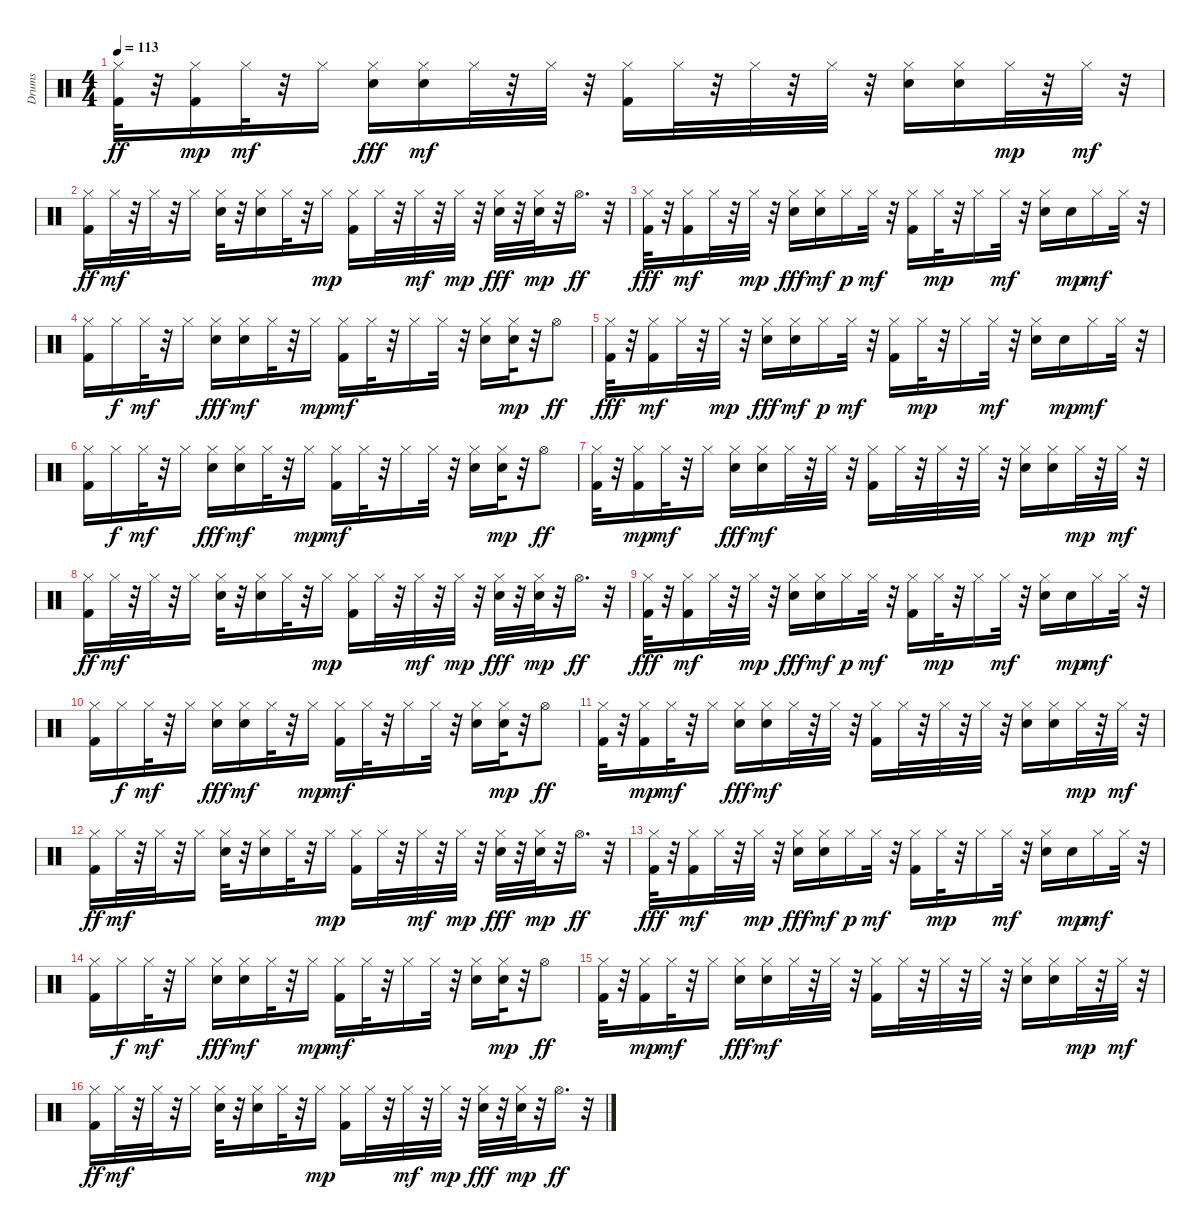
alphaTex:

\track ("Drums" "Drums") {instrument percussion}
\staff {score}
\articulation defaults
\ts (4 4)
\tempo 113
\clef neutral
\ks c
("Kick (hit) 2" "Hi-Hat (closed)").32{dy ff} r.32 ("Kick (hit) 2" "Hi-Hat (closed)").16{dy mp} "Hi-Hat (closed)".32{dy mf} r.32 "Hi-Hat (closed)".16 ("Electric Snare (hit)" "Hi-Hat (closed)").16{dy fff} ("Electric Snare (hit)" "Hi-Hat (closed)").16{dy mf} "Hi-Hat (closed)".32 r.32 "Hi-Hat (closed)".32 r.32 ("Kick (hit) 2" "Hi-Hat (closed)").16 "Hi-Hat (closed)".32 r.32 "Hi-Hat (closed)".32 r.32 "Hi-Hat (closed)".32 r.32 ("Electric Snare (hit)" "Hi-Hat (closed)").16 ("Electric Snare (hit)" "Hi-Hat (closed)").16 "Hi-Hat (closed)".32{dy mp} r.32 "Hi-Hat (closed)".32{dy mf} r.32 |
("Kick (hit) 2" "Hi-Hat (closed)").16{dy ff} "Hi-Hat (closed)".32{dy mf} r.32 "Hi-Hat (closed)".32 r.32 "Hi-Hat (closed)".16 ("Electric Snare (hit)" "Hi-Hat (closed)").32 r.32 ("Electric Snare (hit)" "Hi-Hat (closed)").16 "Hi-Hat (closed)".32 r.32 "Hi-Hat (closed)".16{dy mp} ("Kick (hit) 2" "Hi-Hat (closed)").16 "Hi-Hat (closed)".32 r.32 "Hi-Hat (closed)".32{dy mf} r.32 "Hi-Hat (closed)".32{dy mp} r.32 ("Electric Snare (hit)" "Hi-Hat (closed)").32{dy fff} r.32 ("Electric Snare (hit)" "Hi-Hat (closed)").32{dy mp} r.32 "Hi-Hat (open)".16{d dy ff} r.32 |
("Kick (hit) 2" "Hi-Hat (closed)").32{dy fff} r.32 ("Kick (hit) 2" "Hi-Hat (closed)").16{dy mf} "Hi-Hat (closed)".32 r.32 "Hi-Hat (closed)".32{dy mp} r.32 ("Electric Snare (hit)" "Hi-Hat (closed)").16{dy fff} ("Electric Snare (hit)" "Hi-Hat (closed)").16{dy mf} "Hi-Hat (closed)".16{dy p} "Hi-Hat (closed)".32{dy mf} r.32 ("Kick (hit) 2" "Hi-Hat (closed)").16 "Hi-Hat (closed)".32{dy mp} r.32 "Hi-Hat (closed)".16 "Hi-Hat (closed)".32{dy mf} r.32 ("Electric Snare (hit)" "Hi-Hat (closed)").16 "Electric Snare (hit)".16{dy mp} "Hi-Hat (closed)".16{dy mf} "Hi-Hat (closed)".32 r.32 |
("Kick (hit) 2" "Hi-Hat (closed)").16 "Hi-Hat (closed)".16{dy f} "Hi-Hat (closed)".32{dy mf} r.32 "Hi-Hat (closed)".16 ("Electric Snare (hit)" "Hi-Hat (closed)").16{dy fff} ("Electric Snare (hit)" "Hi-Hat (closed)").16{dy mf} "Hi-Hat (closed)".32 r.32 "Hi-Hat (closed)".16{dy mp} ("Kick (hit) 2" "Hi-Hat (closed)").16{dy mf} "Hi-Hat (closed)".32 r.32 "Hi-Hat (closed)".16 "Hi-Hat (closed)".32 r.32 ("Electric Snare (hit)" "Hi-Hat (closed)").16 ("Electric Snare (hit)" "Hi-Hat (closed)").32{dy mp} r.32 "Hi-Hat (open)".8{dy ff} |
("Kick (hit) 2" "Hi-Hat (closed)").32{dy fff} r.32 ("Kick (hit) 2" "Hi-Hat (closed)").16{dy mf} "Hi-Hat (closed)".32 r.32 "Hi-Hat (closed)".32{dy mp} r.32 ("Electric Snare (hit)" "Hi-Hat (closed)").16{dy fff} ("Electric Snare (hit)" "Hi-Hat (closed)").16{dy mf} "Hi-Hat (closed)".16{dy p} "Hi-Hat (closed)".32{dy mf} r.32 ("Kick (hit) 2" "Hi-Hat (closed)").16 "Hi-Hat (closed)".32{dy mp} r.32 "Hi-Hat (closed)".16 "Hi-Hat (closed)".32{dy mf} r.32 ("Electric Snare (hit)" "Hi-Hat (closed)").16 "Electric Snare (hit)".16{dy mp} "Hi-Hat (closed)".16{dy mf} "Hi-Hat (closed)".32 r.32 |
("Kick (hit) 2" "Hi-Hat (closed)").16 "Hi-Hat (closed)".16{dy f} "Hi-Hat (closed)".32{dy mf} r.32 "Hi-Hat (closed)".16 ("Electric Snare (hit)" "Hi-Hat (closed)").16{dy fff} ("Electric Snare (hit)" "Hi-Hat (closed)").16{dy mf} "Hi-Hat (closed)".32 r.32 "Hi-Hat (closed)".16{dy mp} ("Kick (hit) 2" "Hi-Hat (closed)").16{dy mf} "Hi-Hat (closed)".32 r.32 "Hi-Hat (closed)".16 "Hi-Hat (closed)".32 r.32 ("Electric Snare (hit)" "Hi-Hat (closed)").16 ("Electric Snare (hit)" "Hi-Hat (closed)").32{dy mp} r.32 "Hi-Hat (open)".8{dy ff} |
("Kick (hit) 2" "Hi-Hat (closed)").32 r.32 ("Kick (hit) 2" "Hi-Hat (closed)").16{dy mp} "Hi-Hat (closed)".32{dy mf} r.32 "Hi-Hat (closed)".16 ("Electric Snare (hit)" "Hi-Hat (closed)").16{dy fff} ("Electric Snare (hit)" "Hi-Hat (closed)").16{dy mf} "Hi-Hat (closed)".32 r.32 "Hi-Hat (closed)".32 r.32 ("Kick (hit) 2" "Hi-Hat (closed)").16 "Hi-Hat (closed)".32 r.32 "Hi-Hat (closed)".32 r.32 "Hi-Hat (closed)".32 r.32 ("Electric Snare (hit)" "Hi-Hat (closed)").16 ("Electric Snare (hit)" "Hi-Hat (closed)").16 "Hi-Hat (closed)".32{dy mp} r.32 "Hi-Hat (closed)".32{dy mf} r.32 |
("Kick (hit) 2" "Hi-Hat (closed)").16{dy ff} "Hi-Hat (closed)".32{dy mf} r.32 "Hi-Hat (closed)".32 r.32 "Hi-Hat (closed)".16 ("Electric Snare (hit)" "Hi-Hat (closed)").32 r.32 ("Electric Snare (hit)" "Hi-Hat (closed)").16 "Hi-Hat (closed)".32 r.32 "Hi-Hat (closed)".16{dy mp} ("Kick (hit) 2" "Hi-Hat (closed)").16 "Hi-Hat (closed)".32 r.32 "Hi-Hat (closed)".32{dy mf} r.32 "Hi-Hat (closed)".32{dy mp} r.32 ("Electric Snare (hit)" "Hi-Hat (closed)").32{dy fff} r.32 ("Electric Snare (hit)" "Hi-Hat (closed)").32{dy mp} r.32 "Hi-Hat (open)".16{d dy ff} r.32 |
("Kick (hit) 2" "Hi-Hat (closed)").32{dy fff} r.32 ("Kick (hit) 2" "Hi-Hat (closed)").16{dy mf} "Hi-Hat (closed)".32 r.32 "Hi-Hat (closed)".32{dy mp} r.32 ("Electric Snare (hit)" "Hi-Hat (closed)").16{dy fff} ("Electric Snare (hit)" "Hi-Hat (closed)").16{dy mf} "Hi-Hat (closed)".16{dy p} "Hi-Hat (closed)".32{dy mf} r.32 ("Kick (hit) 2" "Hi-Hat (closed)").16 "Hi-Hat (closed)".32{dy mp} r.32 "Hi-Hat (closed)".16 "Hi-Hat (closed)".32{dy mf} r.32 ("Electric Snare (hit)" "Hi-Hat (closed)").16 "Electric Snare (hit)".16{dy mp} "Hi-Hat (closed)".16{dy mf} "Hi-Hat (closed)".32 r.32 |
("Kick (hit) 2" "Hi-Hat (closed)").16 "Hi-Hat (closed)".16{dy f} "Hi-Hat (closed)".32{dy mf} r.32 "Hi-Hat (closed)".16 ("Electric Snare (hit)" "Hi-Hat (closed)").16{dy fff} ("Electric Snare (hit)" "Hi-Hat (closed)").16{dy mf} "Hi-Hat (closed)".32 r.32 "Hi-Hat (closed)".16{dy mp} ("Kick (hit) 2" "Hi-Hat (closed)").16{dy mf} "Hi-Hat (closed)".32 r.32 "Hi-Hat (closed)".16 "Hi-Hat (closed)".32 r.32 ("Electric Snare (hit)" "Hi-Hat (closed)").16 ("Electric Snare (hit)" "Hi-Hat (closed)").32{dy mp} r.32 "Hi-Hat (open)".8{dy ff} |
("Kick (hit) 2" "Hi-Hat (closed)").32 r.32 ("Kick (hit) 2" "Hi-Hat (closed)").16{dy mp} "Hi-Hat (closed)".32{dy mf} r.32 "Hi-Hat (closed)".16 ("Electric Snare (hit)" "Hi-Hat (closed)").16{dy fff} ("Electric Snare (hit)" "Hi-Hat (closed)").16{dy mf} "Hi-Hat (closed)".32 r.32 "Hi-Hat (closed)".32 r.32 ("Kick (hit) 2" "Hi-Hat (closed)").16 "Hi-Hat (closed)".32 r.32 "Hi-Hat (closed)".32 r.32 "Hi-Hat (closed)".32 r.32 ("Electric Snare (hit)" "Hi-Hat (closed)").16 ("Electric Snare (hit)" "Hi-Hat (closed)").16 "Hi-Hat (closed)".32{dy mp} r.32 "Hi-Hat (closed)".32{dy mf} r.32 |
("Kick (hit) 2" "Hi-Hat (closed)").16{dy ff} "Hi-Hat (closed)".32{dy mf} r.32 "Hi-Hat (closed)".32 r.32 "Hi-Hat (closed)".16 ("Electric Snare (hit)" "Hi-Hat (closed)").32 r.32 ("Electric Snare (hit)" "Hi-Hat (closed)").16 "Hi-Hat (closed)".32 r.32 "Hi-Hat (closed)".16{dy mp} ("Kick (hit) 2" "Hi-Hat (closed)").16 "Hi-Hat (closed)".32 r.32 "Hi-Hat (closed)".32{dy mf} r.32 "Hi-Hat (closed)".32{dy mp} r.32 ("Electric Snare (hit)" "Hi-Hat (closed)").32{dy fff} r.32 ("Electric Snare (hit)" "Hi-Hat (closed)").32{dy mp} r.32 "Hi-Hat (open)".16{d dy ff} r.32 |
("Kick (hit) 2" "Hi-Hat (closed)").32{dy fff} r.32 ("Kick (hit) 2" "Hi-Hat (closed)").16{dy mf} "Hi-Hat (closed)".32 r.32 "Hi-Hat (closed)".32{dy mp} r.32 ("Electric Snare (hit)" "Hi-Hat (closed)").16{dy fff} ("Electric Snare (hit)" "Hi-Hat (closed)").16{dy mf} "Hi-Hat (closed)".16{dy p} "Hi-Hat (closed)".32{dy mf} r.32 ("Kick (hit) 2" "Hi-Hat (closed)").16 "Hi-Hat (closed)".32{dy mp} r.32 "Hi-Hat (closed)".16 "Hi-Hat (closed)".32{dy mf} r.32 ("Electric Snare (hit)" "Hi-Hat (closed)").16 "Electric Snare (hit)".16{dy mp} "Hi-Hat (closed)".16{dy mf} "Hi-Hat (closed)".32 r.32 |
("Kick (hit) 2" "Hi-Hat (closed)").16 "Hi-Hat (closed)".16{dy f} "Hi-Hat (closed)".32{dy mf} r.32 "Hi-Hat (closed)".16 ("Electric Snare (hit)" "Hi-Hat (closed)").16{dy fff} ("Electric Snare (hit)" "Hi-Hat (closed)").16{dy mf} "Hi-Hat (closed)".32 r.32 "Hi-Hat (closed)".16{dy mp} ("Kick (hit) 2" "Hi-Hat (closed)").16{dy mf} "Hi-Hat (closed)".32 r.32 "Hi-Hat (closed)".16 "Hi-Hat (closed)".32 r.32 ("Electric Snare (hit)" "Hi-Hat (closed)").16 ("Electric Snare (hit)" "Hi-Hat (closed)").32{dy mp} r.32 "Hi-Hat (open)".8{dy ff} |
("Kick (hit) 2" "Hi-Hat (closed)").32 r.32 ("Kick (hit) 2" "Hi-Hat (closed)").16{dy mp} "Hi-Hat (closed)".32{dy mf} r.32 "Hi-Hat (closed)".16 ("Electric Snare (hit)" "Hi-Hat (closed)").16{dy fff} ("Electric Snare (hit)" "Hi-Hat (closed)").16{dy mf} "Hi-Hat (closed)".32 r.32 "Hi-Hat (closed)".32 r.32 ("Kick (hit) 2" "Hi-Hat (closed)").16 "Hi-Hat (closed)".32 r.32 "Hi-Hat (closed)".32 r.32 "Hi-Hat (closed)".32 r.32 ("Electric Snare (hit)" "Hi-Hat (closed)").16 ("Electric Snare (hit)" "Hi-Hat (closed)").16 "Hi-Hat (closed)".32{dy mp} r.32 "Hi-Hat (closed)".32{dy mf} r.32 |
("Kick (hit) 2" "Hi-Hat (closed)").16{dy ff} "Hi-Hat (closed)".32{dy mf} r.32 "Hi-Hat (closed)".32 r.32 "Hi-Hat (closed)".16 ("Electric Snare (hit)" "Hi-Hat (closed)").32 r.32 ("Electric Snare (hit)" "Hi-Hat (closed)").16 "Hi-Hat (closed)".32 r.32 "Hi-Hat (closed)".16{dy mp} ("Kick (hit) 2" "Hi-Hat (closed)").16 "Hi-Hat (closed)".32 r.32 "Hi-Hat (closed)".32{dy mf} r.32 "Hi-Hat (closed)".32{dy mp} r.32 ("Electric Snare (hit)" "Hi-Hat (closed)").32{dy fff} r.32 ("Electric Snare (hit)" "Hi-Hat (closed)").32{dy mp} r.32 "Hi-Hat (open)".16{d dy ff} r.32
